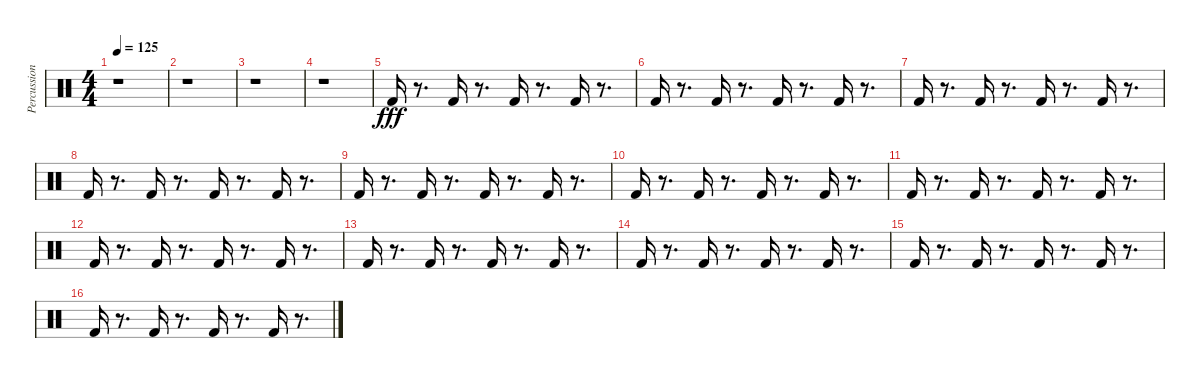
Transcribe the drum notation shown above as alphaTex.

\track ("Percussion" "Percussion") {instrument percussion}
\staff {score}
\articulation defaults
\ts (4 4)
\tempo 125
\clef neutral
\ks c
r.1{dy fff} |
r.1 |
r.1 |
r.1 |
"Kick (hit) 2".16 r.8{d} "Kick (hit) 2".16 r.8{d} "Kick (hit) 2".16 r.8{d} "Kick (hit) 2".16 r.8{d} |
"Kick (hit) 2".16 r.8{d} "Kick (hit) 2".16 r.8{d} "Kick (hit) 2".16 r.8{d} "Kick (hit) 2".16 r.8{d} |
"Kick (hit) 2".16 r.8{d} "Kick (hit) 2".16 r.8{d} "Kick (hit) 2".16 r.8{d} "Kick (hit) 2".16 r.8{d} |
"Kick (hit) 2".16 r.8{d} "Kick (hit) 2".16 r.8{d} "Kick (hit) 2".16 r.8{d} "Kick (hit) 2".16 r.8{d} |
"Kick (hit) 2".16 r.8{d} "Kick (hit) 2".16 r.8{d} "Kick (hit) 2".16 r.8{d} "Kick (hit) 2".16 r.8{d} |
"Kick (hit) 2".16 r.8{d} "Kick (hit) 2".16 r.8{d} "Kick (hit) 2".16 r.8{d} "Kick (hit) 2".16 r.8{d} |
"Kick (hit) 2".16 r.8{d} "Kick (hit) 2".16 r.8{d} "Kick (hit) 2".16 r.8{d} "Kick (hit) 2".16 r.8{d} |
"Kick (hit) 2".16 r.8{d} "Kick (hit) 2".16 r.8{d} "Kick (hit) 2".16 r.8{d} "Kick (hit) 2".16 r.8{d} |
"Kick (hit) 2".16 r.8{d} "Kick (hit) 2".16 r.8{d} "Kick (hit) 2".16 r.8{d} "Kick (hit) 2".16 r.8{d} |
"Kick (hit) 2".16 r.8{d} "Kick (hit) 2".16 r.8{d} "Kick (hit) 2".16 r.8{d} "Kick (hit) 2".16 r.8{d} |
"Kick (hit) 2".16 r.8{d} "Kick (hit) 2".16 r.8{d} "Kick (hit) 2".16 r.8{d} "Kick (hit) 2".16 r.8{d} |
"Kick (hit) 2".16 r.8{d} "Kick (hit) 2".16 r.8{d} "Kick (hit) 2".16 r.8{d} "Kick (hit) 2".16 r.8{d}
